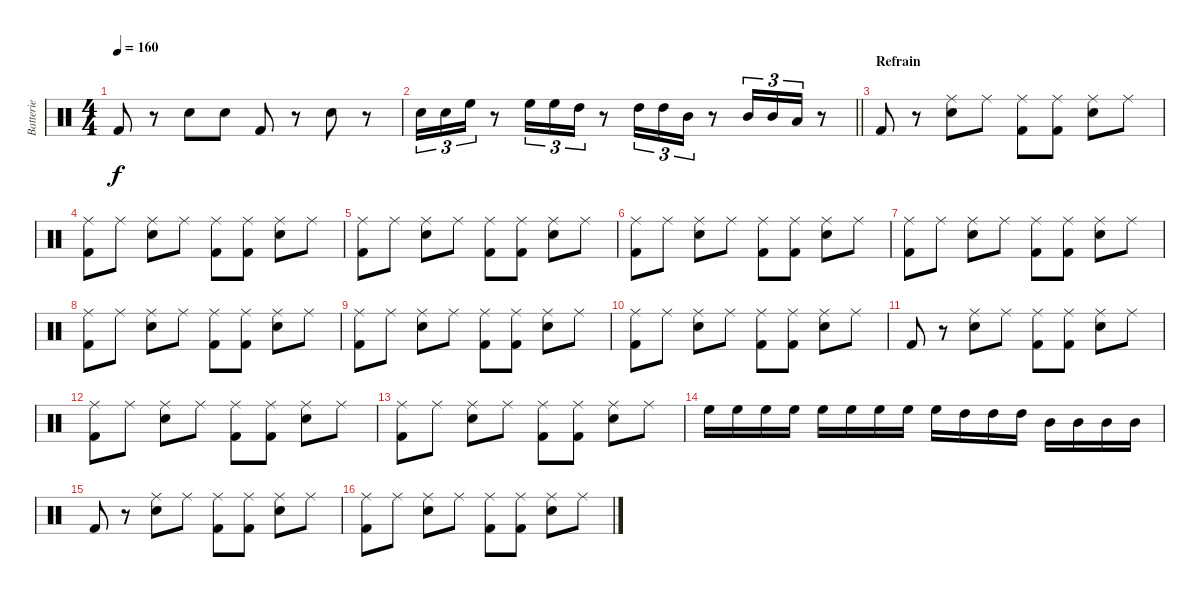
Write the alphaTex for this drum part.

\track ("Batterie" "Batterie") {instrument percussion}
\staff {score}
\articulation defaults
\ts (4 4)
\tempo 160
\clef neutral
\ks c "Kick (hit) 2".8{dy f}
r.8 "Snare (hit) 2".8 "Snare (hit) 2".8 "Kick (hit) 2".8 r.8 "Snare (hit) 2".8 r.8 |
\barLineRight lightlight "Electric Snare (hit)".16{tu (3 2)} "Electric Snare (hit)".16{tu (3 2)} "High Floor Tom (hit)".16{tu (3 2)}
r.8 "High Floor Tom (hit)".16{tu (3 2)} "High Floor Tom (hit)".16{tu (3 2)} "High Tom (hit)".16{tu (3 2)} r.8 "High Tom (hit)".16{tu (3 2)} "High Tom (hit)".16{tu (3 2)} "Mid Tom (hit)".16{tu (3 2)} r.8 "Mid Tom (hit)".16{tu (3 2)} "Mid Tom (hit)".16{tu (3 2)} "Low Tom (hit)".16{tu (3 2)} r.8 |
\section ("" "Refrain")
"Kick (hit) 2".8 r.8 ("Snare (hit) 2" "Ride (middle)").8 "Ride (middle)".8 ("Kick (hit) 2" "Ride (middle)").8 ("Kick (hit) 2" "Ride (middle)").8 ("Snare (hit) 2" "Ride (middle)").8 "Ride (middle)".8 |
("Kick (hit) 2" "Ride (middle)").8 "Ride (middle)".8 ("Snare (hit) 2" "Ride (middle)").8 "Ride (middle)".8 ("Kick (hit) 2" "Ride (middle)").8 ("Kick (hit) 2" "Ride (middle)").8 ("Snare (hit) 2" "Ride (middle)").8 "Ride (middle)".8 |
("Kick (hit) 2" "Ride (middle)").8 "Ride (middle)".8 ("Snare (hit) 2" "Ride (middle)").8 "Ride (middle)".8 ("Kick (hit) 2" "Ride (middle)").8 ("Kick (hit) 2" "Ride (middle)").8 ("Snare (hit) 2" "Ride (middle)").8 "Ride (middle)".8 |
("Kick (hit) 2" "Ride (middle)").8 "Ride (middle)".8 ("Snare (hit) 2" "Ride (middle)").8 "Ride (middle)".8 ("Kick (hit) 2" "Ride (middle)").8 ("Kick (hit) 2" "Ride (middle)").8 ("Snare (hit) 2" "Ride (middle)").8 "Ride (middle)".8 |
("Kick (hit) 2" "Ride (middle)").8 "Ride (middle)".8 ("Snare (hit) 2" "Ride (middle)").8 "Ride (middle)".8 ("Kick (hit) 2" "Ride (middle)").8 ("Kick (hit) 2" "Ride (middle)").8 ("Snare (hit) 2" "Ride (middle)").8 "Ride (middle)".8 |
("Kick (hit) 2" "Ride (middle)").8 "Ride (middle)".8 ("Snare (hit) 2" "Ride (middle)").8 "Ride (middle)".8 ("Kick (hit) 2" "Ride (middle)").8 ("Kick (hit) 2" "Ride (middle)").8 ("Snare (hit) 2" "Ride (middle)").8 "Ride (middle)".8 |
("Kick (hit) 2" "Ride (middle)").8 "Ride (middle)".8 ("Snare (hit) 2" "Ride (middle)").8 "Ride (middle)".8 ("Kick (hit) 2" "Ride (middle)").8 ("Kick (hit) 2" "Ride (middle)").8 ("Snare (hit) 2" "Ride (middle)").8 "Ride (middle)".8 |
("Kick (hit) 2" "Ride (middle)").8 "Ride (middle)".8 ("Snare (hit) 2" "Ride (middle)").8 "Ride (middle)".8 ("Kick (hit) 2" "Ride (middle)").8 ("Kick (hit) 2" "Ride (middle)").8 ("Snare (hit) 2" "Ride (middle)").8 "Ride (middle)".8 |
"Kick (hit) 2".8 r.8 ("Snare (hit) 2" "Ride (middle)").8 "Ride (middle)".8 ("Kick (hit) 2" "Ride (middle)").8 ("Kick (hit) 2" "Ride (middle)").8 ("Snare (hit) 2" "Ride (middle)").8 "Ride (middle)".8 |
("Kick (hit) 2" "Ride (middle)").8 "Ride (middle)".8 ("Snare (hit) 2" "Ride (middle)").8 "Ride (middle)".8 ("Kick (hit) 2" "Ride (middle)").8 ("Kick (hit) 2" "Ride (middle)").8 ("Snare (hit) 2" "Ride (middle)").8 "Ride (middle)".8 |
("Kick (hit) 2" "Ride (middle)").8 "Ride (middle)".8 ("Snare (hit) 2" "Ride (middle)").8 "Ride (middle)".8 ("Kick (hit) 2" "Ride (middle)").8 ("Kick (hit) 2" "Ride (middle)").8 ("Snare (hit) 2" "Ride (middle)").8 "Ride (middle)".8 |
"High Floor Tom (hit)".16 "High Floor Tom (hit)".16 "High Floor Tom (hit)".16 "High Floor Tom (hit)".16 "High Floor Tom (hit)".16 "High Floor Tom (hit)".16 "High Floor Tom (hit)".16 "High Floor Tom (hit)".16 "High Floor Tom (hit)".16 "High Tom (hit)".16 "High Tom (hit)".16 "High Tom (hit)".16 "Mid Tom (hit)".16 "Mid Tom (hit)".16 "Mid Tom (hit)".16 "Mid Tom (hit)".16 |
"Kick (hit) 2".8 r.8 ("Snare (hit) 2" "Ride (middle)").8 "Ride (middle)".8 ("Kick (hit) 2" "Ride (middle)").8 ("Kick (hit) 2" "Ride (middle)").8 ("Snare (hit) 2" "Ride (middle)").8 "Ride (middle)".8 |
("Kick (hit) 2" "Ride (middle)").8 "Ride (middle)".8 ("Snare (hit) 2" "Ride (middle)").8 "Ride (middle)".8 ("Kick (hit) 2" "Ride (middle)").8 ("Kick (hit) 2" "Ride (middle)").8 ("Snare (hit) 2" "Ride (middle)").8 "Ride (middle)".8
